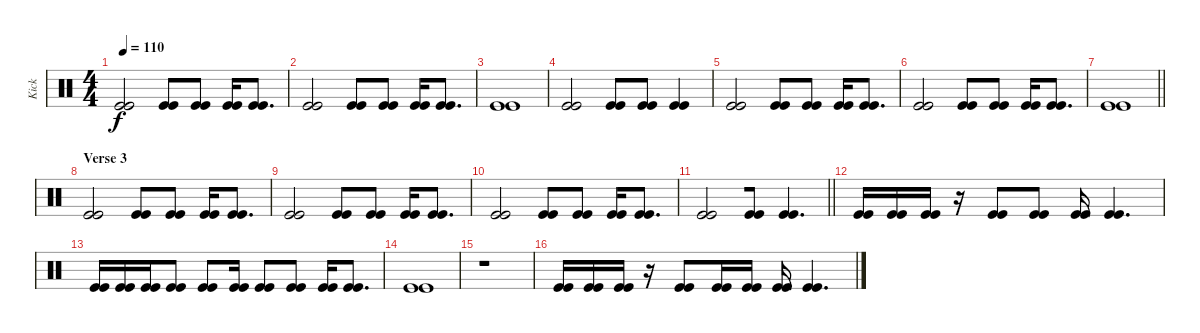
\track ("Kick" "Kick") {instrument percussion}
\staff {score}
\articulation defaults
\ts (4 4)
\tempo 110
\clef neutral
\ks c
("Kick (hit)" "Kick (hit)").2{dy f} ("Kick (hit)" "Kick (hit)").8 ("Kick (hit)" "Kick (hit)").8 ("Kick (hit)" "Kick (hit)").16 ("Kick (hit)" "Kick (hit)").8{d} |
("Kick (hit)" "Kick (hit)").2 ("Kick (hit)" "Kick (hit)").8 ("Kick (hit)" "Kick (hit)").8 ("Kick (hit)" "Kick (hit)").16 ("Kick (hit)" "Kick (hit)").8{d} |
("Kick (hit)" "Kick (hit)").1 |
("Kick (hit)" "Kick (hit)").2 ("Kick (hit)" "Kick (hit)").8 ("Kick (hit)" "Kick (hit)").8 ("Kick (hit)" "Kick (hit)").4 |
("Kick (hit)" "Kick (hit)").2 ("Kick (hit)" "Kick (hit)").8 ("Kick (hit)" "Kick (hit)").8 ("Kick (hit)" "Kick (hit)").16 ("Kick (hit)" "Kick (hit)").8{d} |
("Kick (hit)" "Kick (hit)").2 ("Kick (hit)" "Kick (hit)").8 ("Kick (hit)" "Kick (hit)").8 ("Kick (hit)" "Kick (hit)").16 ("Kick (hit)" "Kick (hit)").8{d} |
\barLineRight lightlight
("Kick (hit)" "Kick (hit)").1 |
\section ("" "Verse 3")
("Kick (hit)" "Kick (hit)").2{beam merge} ("Kick (hit)" "Kick (hit)").8 ("Kick (hit)" "Kick (hit)").8 ("Kick (hit)" "Kick (hit)").16 ("Kick (hit)" "Kick (hit)").8{d} |
("Kick (hit)" "Kick (hit)").2{beam merge} ("Kick (hit)" "Kick (hit)").8 ("Kick (hit)" "Kick (hit)").8 ("Kick (hit)" "Kick (hit)").16 ("Kick (hit)" "Kick (hit)").8{d} |
("Kick (hit)" "Kick (hit)").2{beam merge} ("Kick (hit)" "Kick (hit)").8 ("Kick (hit)" "Kick (hit)").8 ("Kick (hit)" "Kick (hit)").16 ("Kick (hit)" "Kick (hit)").8{d} |
\barLineRight lightlight
("Kick (hit)" "Kick (hit)").2{beam merge} ("Kick (hit)" "Kick (hit)").8 ("Kick (hit)" "Kick (hit)").4{d} |
("Kick (hit)" "Kick (hit)").16{beam merge} ("Kick (hit)" "Kick (hit)").16 ("Kick (hit)" "Kick (hit)").16 r.16 ("Kick (hit)" "Kick (hit)").8 ("Kick (hit)" "Kick (hit)").8 ("Kick (hit)" "Kick (hit)").16 ("Kick (hit)" "Kick (hit)").4{d} |
("Kick (hit)" "Kick (hit)").16{beam merge} ("Kick (hit)" "Kick (hit)").16{beam merge} ("Kick (hit)" "Kick (hit)").16 ("Kick (hit)" "Kick (hit)").8 ("Kick (hit)" "Kick (hit)").8 ("Kick (hit)" "Kick (hit)").16 ("Kick (hit)" "Kick (hit)").8 ("Kick (hit)" "Kick (hit)").8 ("Kick (hit)" "Kick (hit)").16 ("Kick (hit)" "Kick (hit)").8{d} |
("Kick (hit)" "Kick (hit)").1 |
r.1 |
("Kick (hit)" "Kick (hit)").16{beam merge} ("Kick (hit)" "Kick (hit)").16 ("Kick (hit)" "Kick (hit)").16 r.16 ("Kick (hit)" "Kick (hit)").8 ("Kick (hit)" "Kick (hit)").16{beam merge} ("Kick (hit)" "Kick (hit)").16 ("Kick (hit)" "Kick (hit)").16 ("Kick (hit)" "Kick (hit)").4{d}
